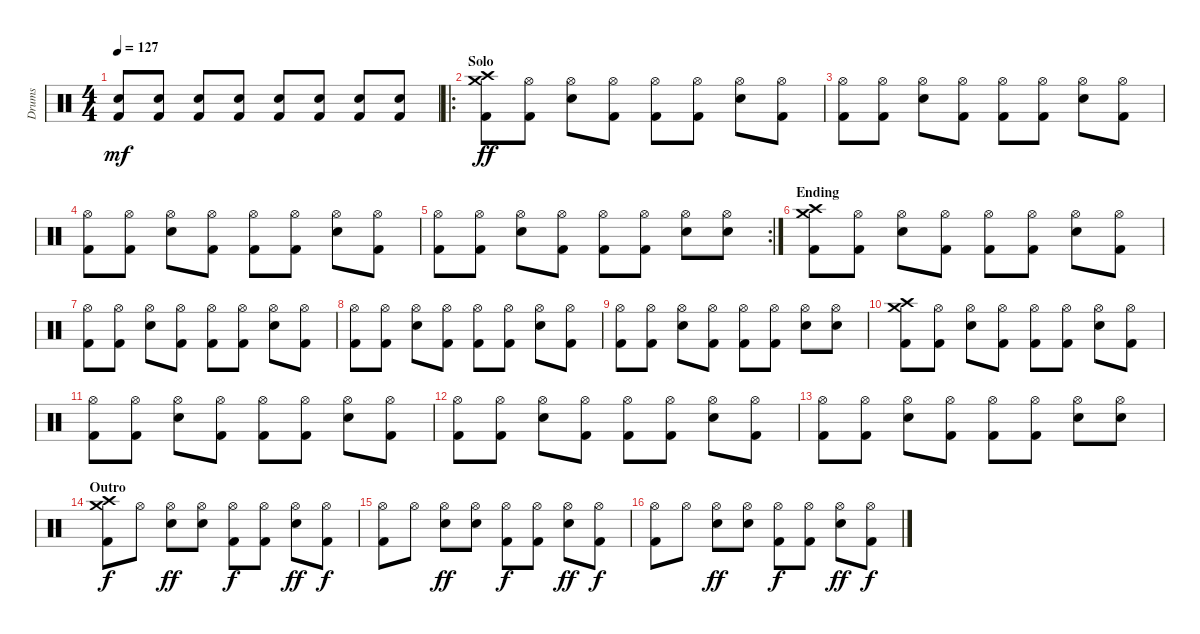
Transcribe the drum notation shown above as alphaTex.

\track ("Drums" "Drums") {instrument percussion}
\staff {score}
\articulation defaults
\ts (4 4)
\tempo 127
\clef neutral
\ks c
("Electric Snare (hit)" "Kick (hit) 2").8{dy mf} ("Electric Snare (hit)" "Kick (hit) 2").8 ("Electric Snare (hit)" "Kick (hit) 2").8 ("Electric Snare (hit)" "Kick (hit) 2").8 ("Electric Snare (hit)" "Kick (hit) 2").8 ("Electric Snare (hit)" "Kick (hit) 2").8 ("Electric Snare (hit)" "Kick (hit) 2").8 ("Electric Snare (hit)" "Kick (hit) 2").8 |
\ro
\section ("" "Solo")
("Crash high (hit)" "Crash medium (hit)" "Kick (hit) 2").8{dy ff} ("Hi-Hat (open)" "Kick (hit) 2").8 ("Hi-Hat (open)" "Electric Snare (hit)").8 ("Hi-Hat (open)" "Kick (hit) 2").8 ("Hi-Hat (open)" "Kick (hit) 2").8 ("Hi-Hat (open)" "Kick (hit) 2").8 ("Hi-Hat (open)" "Electric Snare (hit)").8 ("Hi-Hat (open)" "Kick (hit) 2").8 |
("Hi-Hat (open)" "Kick (hit) 2").8 ("Hi-Hat (open)" "Kick (hit) 2").8 ("Hi-Hat (open)" "Electric Snare (hit)").8 ("Hi-Hat (open)" "Kick (hit) 2").8 ("Hi-Hat (open)" "Kick (hit) 2").8 ("Hi-Hat (open)" "Kick (hit) 2").8 ("Hi-Hat (open)" "Electric Snare (hit)").8 ("Hi-Hat (open)" "Kick (hit) 2").8 |
("Hi-Hat (open)" "Kick (hit) 2").8 ("Hi-Hat (open)" "Kick (hit) 2").8 ("Hi-Hat (open)" "Electric Snare (hit)").8 ("Hi-Hat (open)" "Kick (hit) 2").8 ("Hi-Hat (open)" "Kick (hit) 2").8 ("Hi-Hat (open)" "Kick (hit) 2").8 ("Hi-Hat (open)" "Electric Snare (hit)").8 ("Hi-Hat (open)" "Kick (hit) 2").8 |
\rc 2
("Hi-Hat (open)" "Kick (hit) 2").8 ("Hi-Hat (open)" "Kick (hit) 2").8 ("Hi-Hat (open)" "Electric Snare (hit)").8 ("Hi-Hat (open)" "Kick (hit) 2").8 ("Hi-Hat (open)" "Kick (hit) 2").8 ("Hi-Hat (open)" "Kick (hit) 2").8 ("Hi-Hat (open)" "Electric Snare (hit)").8 ("Hi-Hat (open)" "Electric Snare (hit)").8 |
\section ("" "Ending")
("Crash high (hit)" "Crash medium (hit)" "Kick (hit) 2").8 ("Hi-Hat (open)" "Kick (hit) 2").8 ("Hi-Hat (open)" "Electric Snare (hit)").8 ("Hi-Hat (open)" "Kick (hit) 2").8 ("Hi-Hat (open)" "Kick (hit) 2").8 ("Hi-Hat (open)" "Kick (hit) 2").8 ("Hi-Hat (open)" "Electric Snare (hit)").8 ("Hi-Hat (open)" "Kick (hit) 2").8 |
("Hi-Hat (open)" "Kick (hit) 2").8 ("Hi-Hat (open)" "Kick (hit) 2").8 ("Hi-Hat (open)" "Electric Snare (hit)").8 ("Hi-Hat (open)" "Kick (hit) 2").8 ("Hi-Hat (open)" "Kick (hit) 2").8 ("Hi-Hat (open)" "Kick (hit) 2").8 ("Hi-Hat (open)" "Electric Snare (hit)").8 ("Hi-Hat (open)" "Kick (hit) 2").8 |
("Hi-Hat (open)" "Kick (hit) 2").8 ("Hi-Hat (open)" "Kick (hit) 2").8 ("Hi-Hat (open)" "Electric Snare (hit)").8 ("Hi-Hat (open)" "Kick (hit) 2").8 ("Hi-Hat (open)" "Kick (hit) 2").8 ("Hi-Hat (open)" "Kick (hit) 2").8 ("Hi-Hat (open)" "Electric Snare (hit)").8 ("Hi-Hat (open)" "Kick (hit) 2").8 |
("Hi-Hat (open)" "Kick (hit) 2").8 ("Hi-Hat (open)" "Kick (hit) 2").8 ("Hi-Hat (open)" "Electric Snare (hit)").8 ("Hi-Hat (open)" "Kick (hit) 2").8 ("Hi-Hat (open)" "Kick (hit) 2").8 ("Hi-Hat (open)" "Kick (hit) 2").8 ("Hi-Hat (open)" "Electric Snare (hit)").8 ("Hi-Hat (open)" "Electric Snare (hit)").8 |
("Crash high (hit)" "Crash medium (hit)" "Kick (hit) 2").8 ("Hi-Hat (open)" "Kick (hit) 2").8 ("Hi-Hat (open)" "Electric Snare (hit)").8 ("Hi-Hat (open)" "Kick (hit) 2").8 ("Hi-Hat (open)" "Kick (hit) 2").8 ("Hi-Hat (open)" "Kick (hit) 2").8 ("Hi-Hat (open)" "Electric Snare (hit)").8 ("Hi-Hat (open)" "Kick (hit) 2").8 |
("Hi-Hat (open)" "Kick (hit) 2").8 ("Hi-Hat (open)" "Kick (hit) 2").8 ("Hi-Hat (open)" "Electric Snare (hit)").8 ("Hi-Hat (open)" "Kick (hit) 2").8 ("Hi-Hat (open)" "Kick (hit) 2").8 ("Hi-Hat (open)" "Kick (hit) 2").8 ("Hi-Hat (open)" "Electric Snare (hit)").8 ("Hi-Hat (open)" "Kick (hit) 2").8 |
("Hi-Hat (open)" "Kick (hit) 2").8 ("Hi-Hat (open)" "Kick (hit) 2").8 ("Hi-Hat (open)" "Electric Snare (hit)").8 ("Hi-Hat (open)" "Kick (hit) 2").8 ("Hi-Hat (open)" "Kick (hit) 2").8 ("Hi-Hat (open)" "Kick (hit) 2").8 ("Hi-Hat (open)" "Electric Snare (hit)").8 ("Hi-Hat (open)" "Kick (hit) 2").8 |
("Hi-Hat (open)" "Kick (hit) 2").8 ("Hi-Hat (open)" "Kick (hit) 2").8 ("Hi-Hat (open)" "Electric Snare (hit)").8 ("Hi-Hat (open)" "Kick (hit) 2").8 ("Hi-Hat (open)" "Kick (hit) 2").8 ("Hi-Hat (open)" "Kick (hit) 2").8 ("Hi-Hat (open)" "Electric Snare (hit)").8 ("Hi-Hat (open)" "Electric Snare (hit)").8 |
\section ("" "Outro")
("Crash high (hit)" "Crash medium (hit)" "Kick (hit) 2").8{dy f} "Hi-Hat (open)".8 ("Hi-Hat (open)" "Electric Snare (hit)").8{dy ff} ("Hi-Hat (open)" "Electric Snare (hit)").8 ("Hi-Hat (open)" "Kick (hit) 2").8{dy f} ("Hi-Hat (open)" "Kick (hit) 2").8 ("Hi-Hat (open)" "Electric Snare (hit)").8{dy ff} ("Hi-Hat (open)" "Kick (hit) 2").8{dy f} |
("Hi-Hat (open)" "Kick (hit) 2").8 "Hi-Hat (open)".8 ("Hi-Hat (open)" "Electric Snare (hit)").8{dy ff} ("Hi-Hat (open)" "Electric Snare (hit)").8 ("Hi-Hat (open)" "Kick (hit) 2").8{dy f} ("Hi-Hat (open)" "Kick (hit) 2").8 ("Hi-Hat (open)" "Electric Snare (hit)").8{dy ff} ("Hi-Hat (open)" "Kick (hit) 2").8{dy f} |
("Hi-Hat (open)" "Kick (hit) 2").8 "Hi-Hat (open)".8 ("Hi-Hat (open)" "Electric Snare (hit)").8{dy ff} ("Hi-Hat (open)" "Electric Snare (hit)").8 ("Hi-Hat (open)" "Kick (hit) 2").8{dy f} ("Hi-Hat (open)" "Kick (hit) 2").8 ("Hi-Hat (open)" "Electric Snare (hit)").8{dy ff} ("Hi-Hat (open)" "Kick (hit) 2").8{dy f}
